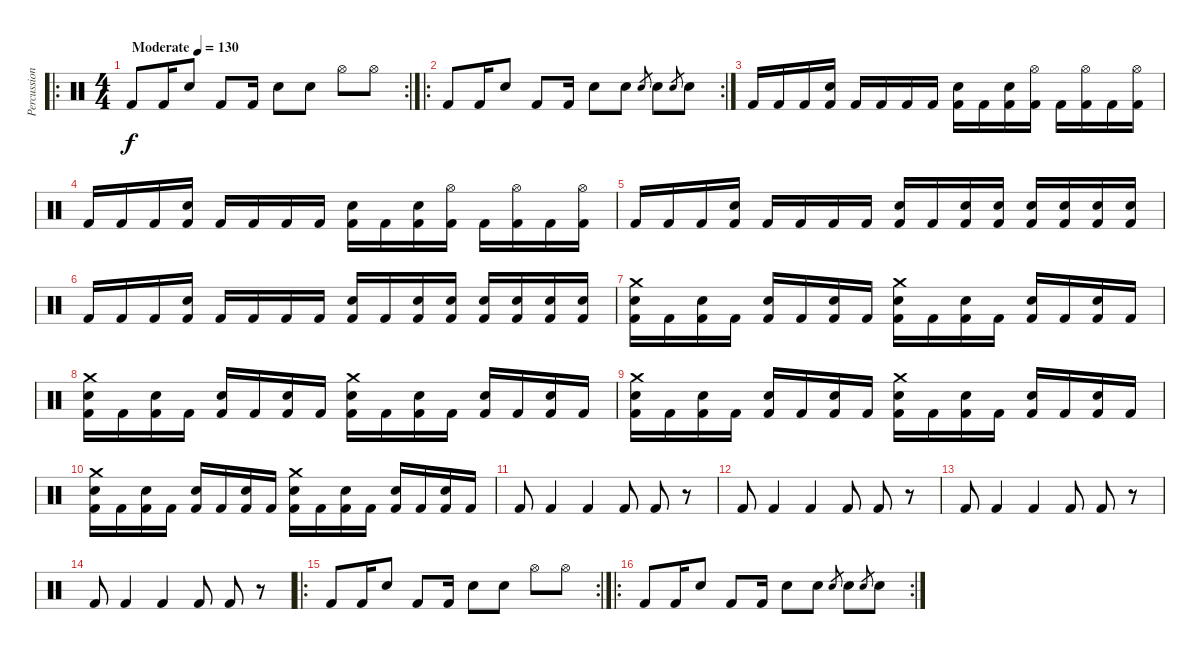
\track ("Percussion" "Percussion") {instrument percussion}
\staff {score}
\articulation defaults
\ro
\rc 2
\ts (4 4)
\tempo (130 "Moderate")
\clef neutral
\ks c "Kick (hit) 2".8{dy f} "Kick (hit) 2".16 "Electric Snare (hit)".8 "Kick (hit) 2".8 "Kick (hit) 2".16 "Electric Snare (hit)".8 "Electric Snare (hit)".8 "Hi-Hat (open)".8 "Hi-Hat (open)".8
|
\ro
\rc 2 "Kick (hit) 2".8 "Kick (hit) 2".16 "Electric Snare (hit)".8 "Kick (hit) 2".8 "Kick (hit) 2".16 "Electric Snare (hit)".8 "Electric Snare (hit)".8 "Electric Snare (hit)".8{gr} "Electric Snare (hit)".8 "Electric Snare (hit)".8{gr} "Electric Snare (hit)".8
|
"Kick (hit) 2".16 "Kick (hit) 2".16 "Kick (hit) 2".16 ("Electric Snare (hit)" "Kick (hit) 2").16 "Kick (hit) 2".16 "Kick (hit) 2".16 "Kick (hit) 2".16 "Kick (hit) 2".16 ("Electric Snare (hit)" "Kick (hit) 2").16 "Kick (hit) 2".16 ("Electric Snare (hit)" "Kick (hit) 2").16 ("Hi-Hat (open)" "Kick (hit) 2").16 "Kick (hit) 2".16 ("Hi-Hat (open)" "Kick (hit) 2").16 "Kick (hit) 2".16 ("Hi-Hat (open)" "Kick (hit) 2").16 |
"Kick (hit) 2".16 "Kick (hit) 2".16 "Kick (hit) 2".16 ("Electric Snare (hit)" "Kick (hit) 2").16 "Kick (hit) 2".16 "Kick (hit) 2".16 "Kick (hit) 2".16 "Kick (hit) 2".16 ("Electric Snare (hit)" "Kick (hit) 2").16 "Kick (hit) 2".16 ("Electric Snare (hit)" "Kick (hit) 2").16 ("Hi-Hat (open)" "Kick (hit) 2").16 "Kick (hit) 2".16 ("Hi-Hat (open)" "Kick (hit) 2").16 "Kick (hit) 2".16 ("Hi-Hat (open)" "Kick (hit) 2").16 |
"Kick (hit) 2".16 "Kick (hit) 2".16 "Kick (hit) 2".16 ("Electric Snare (hit)" "Kick (hit) 2").16 "Kick (hit) 2".16 "Kick (hit) 2".16 "Kick (hit) 2".16 "Kick (hit) 2".16 ("Electric Snare (hit)" "Kick (hit) 2").16 "Kick (hit) 2".16 ("Electric Snare (hit)" "Kick (hit) 2").16 ("Electric Snare (hit)" "Kick (hit) 2").16 ("Electric Snare (hit)" "Kick (hit) 2").16 ("Electric Snare (hit)" "Kick (hit) 2").16 ("Electric Snare (hit)" "Kick (hit) 2").16 ("Electric Snare (hit)" "Kick (hit) 2").16 |
"Kick (hit) 2".16 "Kick (hit) 2".16 "Kick (hit) 2".16 ("Electric Snare (hit)" "Kick (hit) 2").16 "Kick (hit) 2".16 "Kick (hit) 2".16 "Kick (hit) 2".16 "Kick (hit) 2".16 ("Electric Snare (hit)" "Kick (hit) 2").16 "Kick (hit) 2".16 ("Electric Snare (hit)" "Kick (hit) 2").16 ("Electric Snare (hit)" "Kick (hit) 2").16 ("Electric Snare (hit)" "Kick (hit) 2").16 ("Electric Snare (hit)" "Kick (hit) 2").16 ("Electric Snare (hit)" "Kick (hit) 2").16 ("Electric Snare (hit)" "Kick (hit) 2").16 |
("Crash medium (hit)" "Electric Snare (hit)" "Kick (hit) 2").16 "Kick (hit) 2".16 ("Electric Snare (hit)" "Kick (hit) 2").16 "Kick (hit) 2".16 ("Electric Snare (hit)" "Kick (hit) 2").16 "Kick (hit) 2".16 ("Electric Snare (hit)" "Kick (hit) 2").16 "Kick (hit) 2".16 ("Crash medium (hit)" "Electric Snare (hit)" "Kick (hit) 2").16 "Kick (hit) 2".16 ("Electric Snare (hit)" "Kick (hit) 2").16 "Kick (hit) 2".16 ("Electric Snare (hit)" "Kick (hit) 2").16 "Kick (hit) 2".16 ("Electric Snare (hit)" "Kick (hit) 2").16 "Kick (hit) 2".16 |
("Crash medium (hit)" "Electric Snare (hit)" "Kick (hit) 2").16 "Kick (hit) 2".16 ("Electric Snare (hit)" "Kick (hit) 2").16 "Kick (hit) 2".16 ("Electric Snare (hit)" "Kick (hit) 2").16 "Kick (hit) 2".16 ("Electric Snare (hit)" "Kick (hit) 2").16 "Kick (hit) 2".16 ("Crash medium (hit)" "Electric Snare (hit)" "Kick (hit) 2").16 "Kick (hit) 2".16 ("Electric Snare (hit)" "Kick (hit) 2").16 "Kick (hit) 2".16 ("Electric Snare (hit)" "Kick (hit) 2").16 "Kick (hit) 2".16 ("Electric Snare (hit)" "Kick (hit) 2").16 "Kick (hit) 2".16 |
("Crash medium (hit)" "Electric Snare (hit)" "Kick (hit) 2").16 "Kick (hit) 2".16 ("Electric Snare (hit)" "Kick (hit) 2").16 "Kick (hit) 2".16 ("Electric Snare (hit)" "Kick (hit) 2").16 "Kick (hit) 2".16 ("Electric Snare (hit)" "Kick (hit) 2").16 "Kick (hit) 2".16 ("Crash medium (hit)" "Electric Snare (hit)" "Kick (hit) 2").16 "Kick (hit) 2".16 ("Electric Snare (hit)" "Kick (hit) 2").16 "Kick (hit) 2".16 ("Electric Snare (hit)" "Kick (hit) 2").16 "Kick (hit) 2".16 ("Electric Snare (hit)" "Kick (hit) 2").16 "Kick (hit) 2".16 |
("Crash medium (hit)" "Electric Snare (hit)" "Kick (hit) 2").16 "Kick (hit) 2".16 ("Electric Snare (hit)" "Kick (hit) 2").16 "Kick (hit) 2".16 ("Electric Snare (hit)" "Kick (hit) 2").16 "Kick (hit) 2".16 ("Electric Snare (hit)" "Kick (hit) 2").16 "Kick (hit) 2".16 ("Crash medium (hit)" "Electric Snare (hit)" "Kick (hit) 2").16 "Kick (hit) 2".16 ("Electric Snare (hit)" "Kick (hit) 2").16 "Kick (hit) 2".16 ("Electric Snare (hit)" "Kick (hit) 2").16 "Kick (hit) 2".16 ("Electric Snare (hit)" "Kick (hit) 2").16 "Kick (hit) 2".16 |
"Kick (hit) 2".8 "Kick (hit) 2".4 "Kick (hit) 2".4 "Kick (hit) 2".8 "Kick (hit) 2".8 r.8 |
"Kick (hit) 2".8 "Kick (hit) 2".4 "Kick (hit) 2".4 "Kick (hit) 2".8 "Kick (hit) 2".8 r.8 |
"Kick (hit) 2".8 "Kick (hit) 2".4 "Kick (hit) 2".4 "Kick (hit) 2".8 "Kick (hit) 2".8 r.8 |
"Kick (hit) 2".8 "Kick (hit) 2".4 "Kick (hit) 2".4 "Kick (hit) 2".8 "Kick (hit) 2".8 r.8 |
\ro
\rc 2 "Kick (hit) 2".8 "Kick (hit) 2".16 "Electric Snare (hit)".8 "Kick (hit) 2".8 "Kick (hit) 2".16 "Electric Snare (hit)".8 "Electric Snare (hit)".8 "Hi-Hat (open)".8 "Hi-Hat (open)".8
|
\ro
\rc 2 "Kick (hit) 2".8 "Kick (hit) 2".16 "Electric Snare (hit)".8 "Kick (hit) 2".8 "Kick (hit) 2".16 "Electric Snare (hit)".8 "Electric Snare (hit)".8 "Electric Snare (hit)".8{gr} "Electric Snare (hit)".8 "Electric Snare (hit)".8{gr} "Electric Snare (hit)".8
